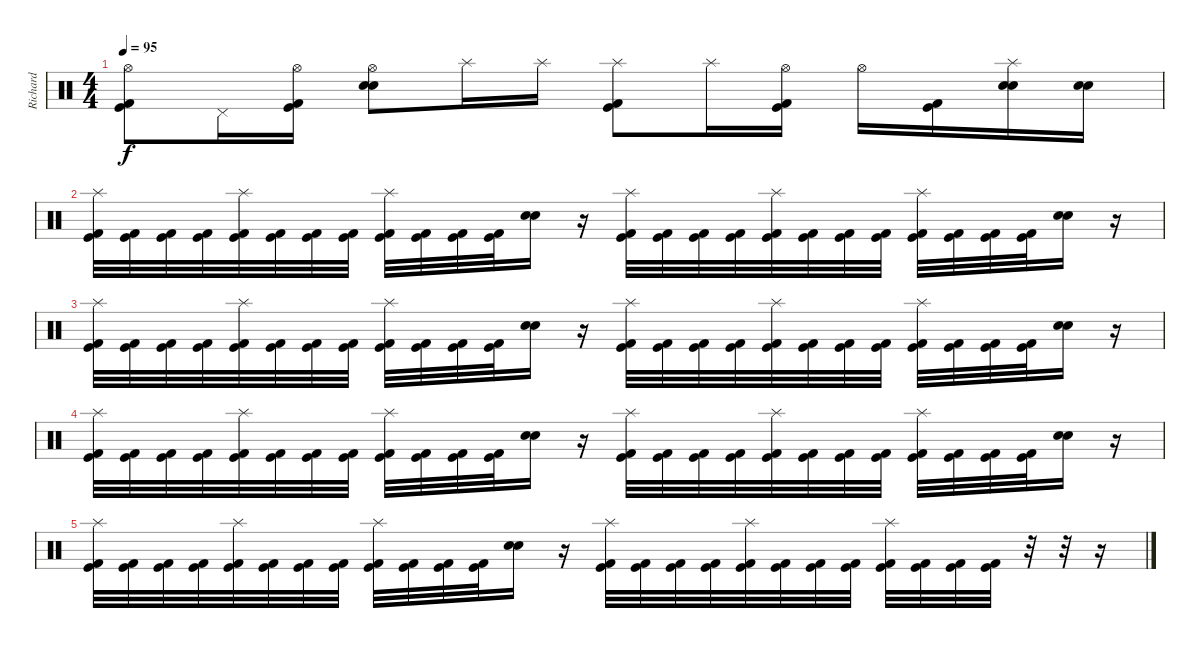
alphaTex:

\track ("Richard" "Richard") {instrument percussion}
\staff {score}
\articulation defaults
\ts (4 4)
\tempo 95
\clef neutral
\ks c
("Hi-Hat (open)" "Kick (hit)" "Kick (hit) 2").8{dy f} "Pedal Hi-Hat (hit)".16 ("Hi-Hat (open)" "Kick (hit)" "Kick (hit) 2").16 ("Hi-Hat (open)" "Snare (hit) 2" "Electric Snare (hit)").8 "Splash (hit)".16 "Splash (hit)".16 ("Splash (hit)" "Kick (hit)" "Kick (hit) 2").8 "Splash (hit)".16 ("Hi-Hat (open)" "Kick (hit)" "Kick (hit) 2").16 "Hi-Hat (open)".16 ("Kick (hit)" "Kick (hit) 2").16 ("Splash (hit)" "Snare (hit) 2" "Electric Snare (hit)").16 ("Snare (hit) 2" "Electric Snare (hit)").16 |
("Splash (hit)" "Kick (hit)" "Kick (hit) 2").32 ("Kick (hit)" "Kick (hit) 2").32 ("Kick (hit)" "Kick (hit) 2").32 ("Kick (hit)" "Kick (hit) 2").32 ("Splash (hit)" "Kick (hit)" "Kick (hit) 2").32 ("Kick (hit)" "Kick (hit) 2").32 ("Kick (hit)" "Kick (hit) 2").32 ("Kick (hit)" "Kick (hit) 2").32 ("Splash (hit)" "Kick (hit)" "Kick (hit) 2").32 ("Kick (hit)" "Kick (hit) 2").32 ("Kick (hit)" "Kick (hit) 2").32 ("Kick (hit)" "Kick (hit) 2").32 ("Snare (hit) 2" "Electric Snare (hit)").16 r.16 ("Splash (hit)" "Kick (hit)" "Kick (hit) 2").32 ("Kick (hit)" "Kick (hit) 2").32 ("Kick (hit)" "Kick (hit) 2").32 ("Kick (hit)" "Kick (hit) 2").32 ("Splash (hit)" "Kick (hit)" "Kick (hit) 2").32 ("Kick (hit)" "Kick (hit) 2").32 ("Kick (hit)" "Kick (hit) 2").32 ("Kick (hit)" "Kick (hit) 2").32 ("Splash (hit)" "Kick (hit)" "Kick (hit) 2").32 ("Kick (hit)" "Kick (hit) 2").32 ("Kick (hit)" "Kick (hit) 2").32 ("Kick (hit)" "Kick (hit) 2").32 ("Snare (hit) 2" "Electric Snare (hit)").16 r.16 |
("Splash (hit)" "Kick (hit)" "Kick (hit) 2").32 ("Kick (hit)" "Kick (hit) 2").32 ("Kick (hit)" "Kick (hit) 2").32 ("Kick (hit)" "Kick (hit) 2").32 ("Splash (hit)" "Kick (hit)" "Kick (hit) 2").32 ("Kick (hit)" "Kick (hit) 2").32 ("Kick (hit)" "Kick (hit) 2").32 ("Kick (hit)" "Kick (hit) 2").32 ("Splash (hit)" "Kick (hit)" "Kick (hit) 2").32 ("Kick (hit)" "Kick (hit) 2").32 ("Kick (hit)" "Kick (hit) 2").32 ("Kick (hit)" "Kick (hit) 2").32 ("Snare (hit) 2" "Electric Snare (hit)").16 r.16 ("Splash (hit)" "Kick (hit)" "Kick (hit) 2").32 ("Kick (hit)" "Kick (hit) 2").32 ("Kick (hit)" "Kick (hit) 2").32 ("Kick (hit)" "Kick (hit) 2").32 ("Splash (hit)" "Kick (hit)" "Kick (hit) 2").32 ("Kick (hit)" "Kick (hit) 2").32 ("Kick (hit)" "Kick (hit) 2").32 ("Kick (hit)" "Kick (hit) 2").32 ("Splash (hit)" "Kick (hit)" "Kick (hit) 2").32 ("Kick (hit)" "Kick (hit) 2").32 ("Kick (hit)" "Kick (hit) 2").32 ("Kick (hit)" "Kick (hit) 2").32 ("Snare (hit) 2" "Electric Snare (hit)").16 r.16 |
("Splash (hit)" "Kick (hit)" "Kick (hit) 2").32 ("Kick (hit)" "Kick (hit) 2").32 ("Kick (hit)" "Kick (hit) 2").32 ("Kick (hit)" "Kick (hit) 2").32 ("Splash (hit)" "Kick (hit)" "Kick (hit) 2").32 ("Kick (hit)" "Kick (hit) 2").32 ("Kick (hit)" "Kick (hit) 2").32 ("Kick (hit)" "Kick (hit) 2").32 ("Splash (hit)" "Kick (hit)" "Kick (hit) 2").32 ("Kick (hit)" "Kick (hit) 2").32 ("Kick (hit)" "Kick (hit) 2").32 ("Kick (hit)" "Kick (hit) 2").32 ("Snare (hit) 2" "Electric Snare (hit)").16 r.16 ("Splash (hit)" "Kick (hit)" "Kick (hit) 2").32 ("Kick (hit)" "Kick (hit) 2").32 ("Kick (hit)" "Kick (hit) 2").32 ("Kick (hit)" "Kick (hit) 2").32 ("Splash (hit)" "Kick (hit)" "Kick (hit) 2").32 ("Kick (hit)" "Kick (hit) 2").32 ("Kick (hit)" "Kick (hit) 2").32 ("Kick (hit)" "Kick (hit) 2").32 ("Splash (hit)" "Kick (hit)" "Kick (hit) 2").32 ("Kick (hit)" "Kick (hit) 2").32 ("Kick (hit)" "Kick (hit) 2").32 ("Kick (hit)" "Kick (hit) 2").32 ("Snare (hit) 2" "Electric Snare (hit)").16 r.16 |
("Splash (hit)" "Kick (hit)" "Kick (hit) 2").32 ("Kick (hit)" "Kick (hit) 2").32 ("Kick (hit)" "Kick (hit) 2").32 ("Kick (hit)" "Kick (hit) 2").32 ("Splash (hit)" "Kick (hit)" "Kick (hit) 2").32 ("Kick (hit)" "Kick (hit) 2").32 ("Kick (hit)" "Kick (hit) 2").32 ("Kick (hit)" "Kick (hit) 2").32 ("Splash (hit)" "Kick (hit)" "Kick (hit) 2").32 ("Kick (hit)" "Kick (hit) 2").32 ("Kick (hit)" "Kick (hit) 2").32 ("Kick (hit)" "Kick (hit) 2").32 ("Snare (hit) 2" "Electric Snare (hit)").16 r.16 ("Splash (hit)" "Kick (hit)" "Kick (hit) 2").32 ("Kick (hit)" "Kick (hit) 2").32 ("Kick (hit)" "Kick (hit) 2").32 ("Kick (hit)" "Kick (hit) 2").32 ("Splash (hit)" "Kick (hit)" "Kick (hit) 2").32 ("Kick (hit)" "Kick (hit) 2").32 ("Kick (hit)" "Kick (hit) 2").32 ("Kick (hit)" "Kick (hit) 2").32 ("Splash (hit)" "Kick (hit)" "Kick (hit) 2").32 ("Kick (hit)" "Kick (hit) 2").32 ("Kick (hit)" "Kick (hit) 2").32 ("Kick (hit)" "Kick (hit) 2").32 r.32 r.32 r.16
